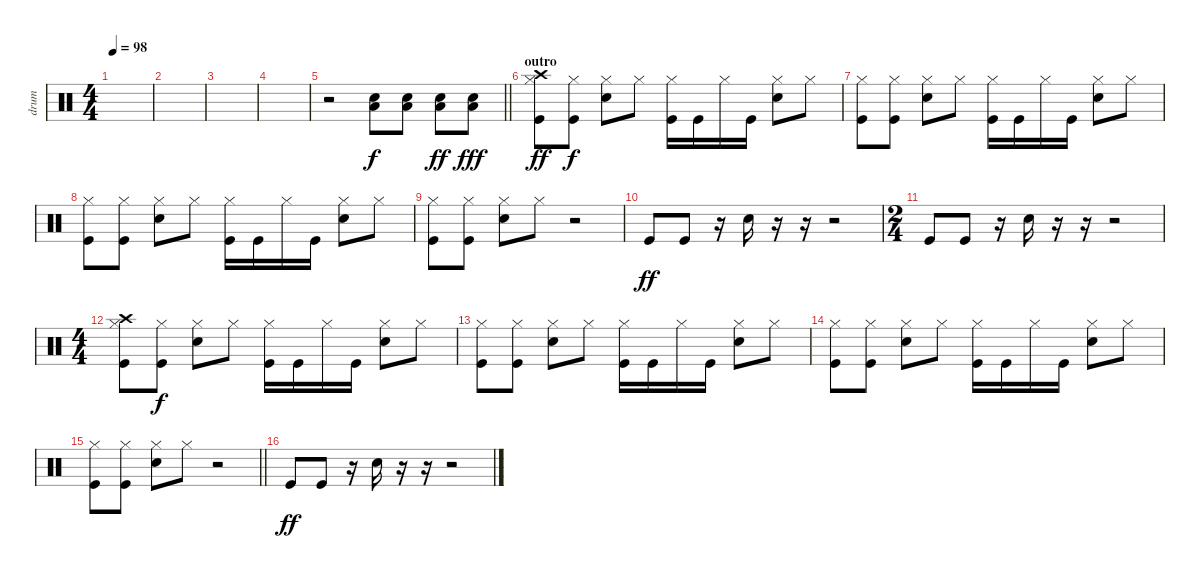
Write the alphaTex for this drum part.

\track ("drum" "drum") {instrument percussion}
\staff {score}
\articulation defaults
\ts (4 4)
\tempo 98
\clef neutral
\ks c
|
|
|
|
\barLineRight lightlight
r.2 ("Electric Snare (hit)" "Low Tom (hit)").8 ("Electric Snare (hit)" "Low Tom (hit)").8 ("Electric Snare (hit)" "Low Tom (hit)").8{dy ff} ("Electric Snare (hit)" "Low Tom (hit)").8{dy fff} |
\section ("" "outro")
("Crash high (hit)" "Hi-Hat (closed)" "Kick (hit)").8{dy ff} ("Hi-Hat (closed)" "Kick (hit)").8{dy f} ("Hi-Hat (closed)" "Electric Snare (hit)").8 "Hi-Hat (closed)".8 ("Hi-Hat (closed)" "Kick (hit)").16 "Kick (hit)".16 "Hi-Hat (closed)".16 "Kick (hit)".16 ("Hi-Hat (closed)" "Electric Snare (hit)").8 "Hi-Hat (closed)".8 |
("Hi-Hat (closed)" "Kick (hit)").8 ("Hi-Hat (closed)" "Kick (hit)").8 ("Hi-Hat (closed)" "Electric Snare (hit)").8 "Hi-Hat (closed)".8 ("Hi-Hat (closed)" "Kick (hit)").16 "Kick (hit)".16 "Hi-Hat (closed)".16 "Kick (hit)".16 ("Hi-Hat (closed)" "Electric Snare (hit)").8 "Hi-Hat (closed)".8 |
("Hi-Hat (closed)" "Kick (hit)").8 ("Hi-Hat (closed)" "Kick (hit)").8 ("Hi-Hat (closed)" "Electric Snare (hit)").8 "Hi-Hat (closed)".8 ("Hi-Hat (closed)" "Kick (hit)").16 "Kick (hit)".16 "Hi-Hat (closed)".16 "Kick (hit)".16 ("Hi-Hat (closed)" "Electric Snare (hit)").8 "Hi-Hat (closed)".8 |
("Hi-Hat (closed)" "Kick (hit)").8 ("Hi-Hat (closed)" "Kick (hit)").8 ("Hi-Hat (closed)" "Electric Snare (hit)").8 "Hi-Hat (closed)".8 r.2 |
"Kick (hit)".8{dy ff} "Kick (hit)".8 r.16 "Electric Snare (hit)".16 r.16 r.16 r.2 |
\ts (2 4)
"Kick (hit)".8 "Kick (hit)".8 r.16 "Electric Snare (hit)".16 r.16 r.16 r.2 |
\ts (4 4)
("Crash high (hit)" "Hi-Hat (closed)" "Kick (hit)").8 ("Hi-Hat (closed)" "Kick (hit)").8{dy f} ("Hi-Hat (closed)" "Electric Snare (hit)").8 "Hi-Hat (closed)".8 ("Hi-Hat (closed)" "Kick (hit)").16 "Kick (hit)".16 "Hi-Hat (closed)".16 "Kick (hit)".16 ("Hi-Hat (closed)" "Electric Snare (hit)").8 "Hi-Hat (closed)".8 |
("Hi-Hat (closed)" "Kick (hit)").8 ("Hi-Hat (closed)" "Kick (hit)").8 ("Hi-Hat (closed)" "Electric Snare (hit)").8 "Hi-Hat (closed)".8 ("Hi-Hat (closed)" "Kick (hit)").16 "Kick (hit)".16 "Hi-Hat (closed)".16 "Kick (hit)".16 ("Hi-Hat (closed)" "Electric Snare (hit)").8 "Hi-Hat (closed)".8 |
("Hi-Hat (closed)" "Kick (hit)").8 ("Hi-Hat (closed)" "Kick (hit)").8 ("Hi-Hat (closed)" "Electric Snare (hit)").8 "Hi-Hat (closed)".8 ("Hi-Hat (closed)" "Kick (hit)").16 "Kick (hit)".16 "Hi-Hat (closed)".16 "Kick (hit)".16 ("Hi-Hat (closed)" "Electric Snare (hit)").8 "Hi-Hat (closed)".8 |
\barLineRight lightlight
("Hi-Hat (closed)" "Kick (hit)").8 ("Hi-Hat (closed)" "Kick (hit)").8 ("Hi-Hat (closed)" "Electric Snare (hit)").8 "Hi-Hat (closed)".8 r.2 |
"Kick (hit)".8{dy ff} "Kick (hit)".8 r.16 "Electric Snare (hit)".16 r.16 r.16 r.2
